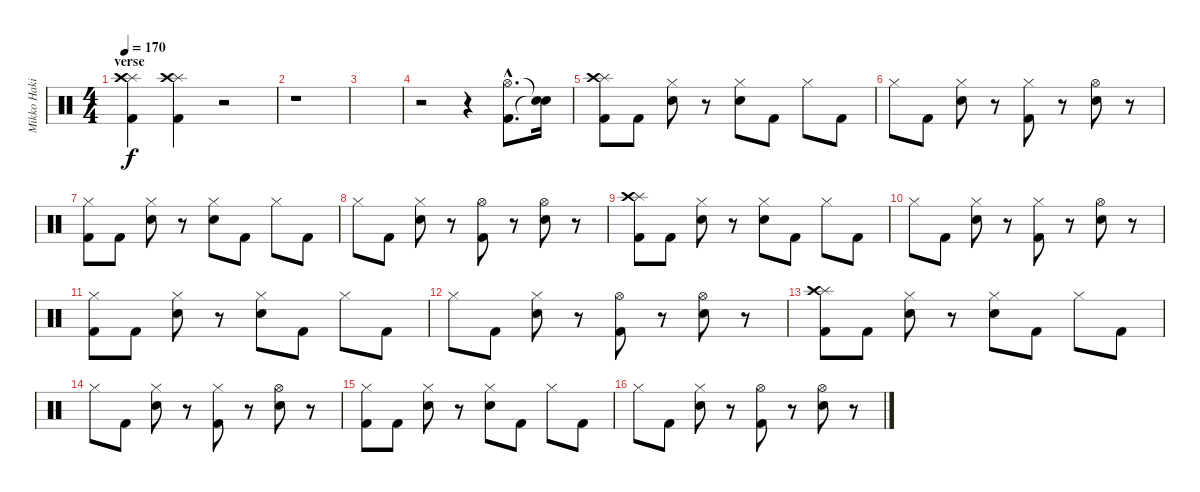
\track ("Mikko Hakila - drums" "Mikko Haki") {instrument percussion}
\staff {score}
\articulation defaults
\ts (4 4)
\section ("" "verse")
\tempo 170
\clef neutral
\ks c
("Splash (hit)" "Crash high (hit)" "Kick (hit) 2").4{dy f} ("Splash (hit)" "Crash high (hit)" "Kick (hit) 2").4 r.2 |
r.1 |
|
r.2 r.4 ("Hi-Hat (open)"{hac} "Kick (hit) 2"{hac}).8{d} ("Snare (hit)"{t} "Snare (hit)"{t}).16 |
("Splash (hit)" "Crash high (hit)" "Kick (hit) 2").8 "Kick (hit) 2".8 ("Hi-Hat (closed)" "Snare (hit) 2").8 r.8 ("Hi-Hat (closed)" "Snare (hit) 2").8 "Kick (hit) 2".8 "Hi-Hat (closed)".8 "Kick (hit) 2".8 |
"Hi-Hat (closed)".8 "Kick (hit) 2".8 ("Hi-Hat (closed)" "Snare (hit) 2").8 r.8 ("Hi-Hat (closed)" "Kick (hit) 2").8 r.8 ("Hi-Hat (open)" "Snare (hit) 2").8 r.8 |
("Hi-Hat (closed)" "Kick (hit) 2").8 "Kick (hit) 2".8 ("Hi-Hat (closed)" "Snare (hit) 2").8 r.8 ("Hi-Hat (closed)" "Snare (hit) 2").8 "Kick (hit) 2".8 "Hi-Hat (closed)".8 "Kick (hit) 2".8 |
"Hi-Hat (closed)".8 "Kick (hit) 2".8 ("Hi-Hat (closed)" "Snare (hit) 2").8 r.8 ("Hi-Hat (open)" "Kick (hit) 2").8 r.8 ("Hi-Hat (open)" "Snare (hit) 2").8 r.8 |
("Splash (hit)" "Crash high (hit)" "Kick (hit) 2").8 "Kick (hit) 2".8 ("Hi-Hat (closed)" "Snare (hit) 2").8 r.8 ("Hi-Hat (closed)" "Snare (hit) 2").8 "Kick (hit) 2".8 "Hi-Hat (closed)".8 "Kick (hit) 2".8 |
"Hi-Hat (closed)".8 "Kick (hit) 2".8 ("Hi-Hat (closed)" "Snare (hit) 2").8 r.8 ("Hi-Hat (closed)" "Kick (hit) 2").8 r.8 ("Hi-Hat (open)" "Snare (hit) 2").8 r.8 |
("Hi-Hat (closed)" "Kick (hit) 2").8 "Kick (hit) 2".8 ("Hi-Hat (closed)" "Snare (hit) 2").8 r.8 ("Hi-Hat (closed)" "Snare (hit) 2").8 "Kick (hit) 2".8 "Hi-Hat (closed)".8 "Kick (hit) 2".8 |
"Hi-Hat (closed)".8 "Kick (hit) 2".8 ("Hi-Hat (closed)" "Snare (hit) 2").8 r.8 ("Hi-Hat (open)" "Kick (hit) 2").8 r.8 ("Hi-Hat (open)" "Snare (hit) 2").8 r.8 |
("Splash (hit)" "Crash high (hit)" "Kick (hit) 2").8 "Kick (hit) 2".8 ("Hi-Hat (closed)" "Snare (hit) 2").8 r.8 ("Hi-Hat (closed)" "Snare (hit) 2").8 "Kick (hit) 2".8 "Hi-Hat (closed)".8 "Kick (hit) 2".8 |
"Hi-Hat (closed)".8 "Kick (hit) 2".8 ("Hi-Hat (closed)" "Snare (hit) 2").8 r.8 ("Hi-Hat (closed)" "Kick (hit) 2").8 r.8 ("Hi-Hat (open)" "Snare (hit) 2").8 r.8 |
("Hi-Hat (closed)" "Kick (hit) 2").8 "Kick (hit) 2".8 ("Hi-Hat (closed)" "Snare (hit) 2").8 r.8 ("Hi-Hat (closed)" "Snare (hit) 2").8 "Kick (hit) 2".8 "Hi-Hat (closed)".8 "Kick (hit) 2".8 |
"Hi-Hat (closed)".8 "Kick (hit) 2".8 ("Hi-Hat (closed)" "Snare (hit) 2").8 r.8 ("Hi-Hat (open)" "Kick (hit) 2").8 r.8 ("Hi-Hat (open)" "Snare (hit) 2").8 r.8
